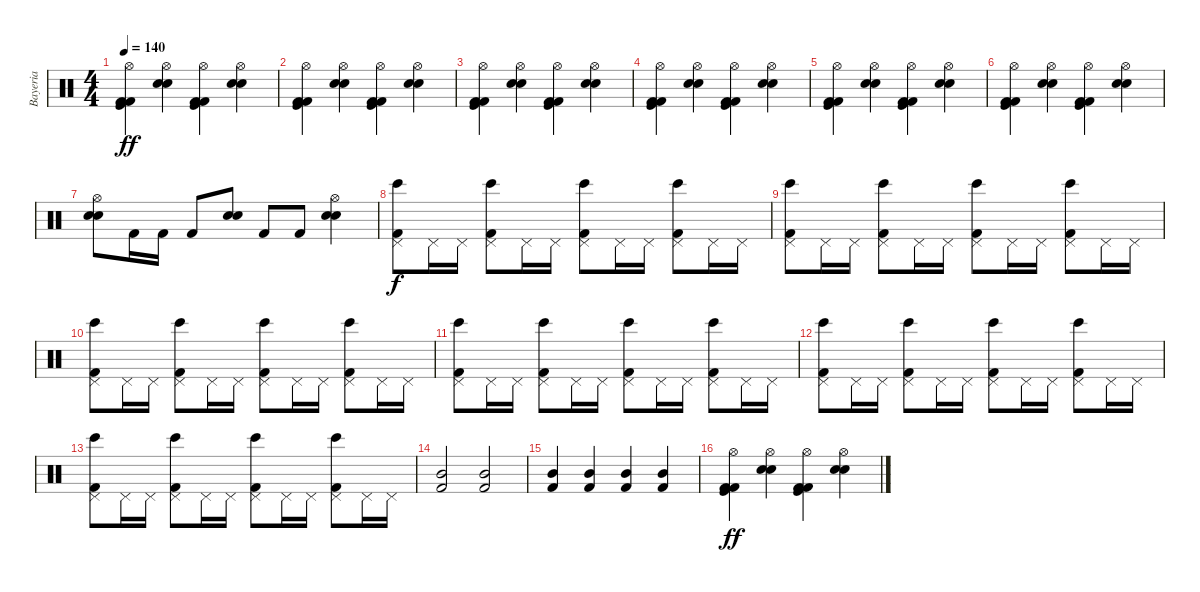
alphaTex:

\track ("Bayeria" "Bayeria") {instrument percussion}
\staff {score}
\articulation defaults
\ts (4 4)
\tempo 140
\clef neutral
\ks c
("Kick (hit) 2" "Kick (hit)" "Kick (hit) 2" "Hi-Hat (open)").4{dy ff} ("Electric Snare (hit)" "Snare (hit) 2" "Hi-Hat (open)").4 ("Kick (hit) 2" "Kick (hit)" "Kick (hit) 2" "Hi-Hat (open)").4 ("Electric Snare (hit)" "Snare (hit) 2" "Hi-Hat (open)").4 |
("Kick (hit) 2" "Kick (hit)" "Kick (hit) 2" "Hi-Hat (open)").4 ("Electric Snare (hit)" "Snare (hit) 2" "Hi-Hat (open)").4 ("Kick (hit) 2" "Kick (hit)" "Kick (hit) 2" "Hi-Hat (open)").4 ("Electric Snare (hit)" "Snare (hit) 2" "Hi-Hat (open)").4 |
("Kick (hit) 2" "Kick (hit)" "Kick (hit) 2" "Hi-Hat (open)").4 ("Electric Snare (hit)" "Snare (hit) 2" "Hi-Hat (open)").4 ("Kick (hit) 2" "Kick (hit)" "Kick (hit) 2" "Hi-Hat (open)").4 ("Electric Snare (hit)" "Snare (hit) 2" "Hi-Hat (open)").4 |
("Kick (hit) 2" "Kick (hit)" "Kick (hit) 2" "Hi-Hat (open)").4 ("Electric Snare (hit)" "Snare (hit) 2" "Hi-Hat (open)").4 ("Kick (hit) 2" "Kick (hit)" "Kick (hit) 2" "Hi-Hat (open)").4 ("Electric Snare (hit)" "Snare (hit) 2" "Hi-Hat (open)").4 |
("Kick (hit) 2" "Kick (hit)" "Kick (hit) 2" "Hi-Hat (open)").4 ("Electric Snare (hit)" "Snare (hit) 2" "Hi-Hat (open)").4 ("Kick (hit) 2" "Kick (hit)" "Kick (hit) 2" "Hi-Hat (open)").4 ("Electric Snare (hit)" "Snare (hit) 2" "Hi-Hat (open)").4 |
("Kick (hit) 2" "Kick (hit)" "Kick (hit) 2" "Hi-Hat (open)").4 ("Electric Snare (hit)" "Snare (hit) 2" "Hi-Hat (open)").4 ("Kick (hit) 2" "Kick (hit)" "Kick (hit) 2" "Hi-Hat (open)").4 ("Electric Snare (hit)" "Snare (hit) 2" "Hi-Hat (open)").4 |
("Electric Snare (hit)" "Snare (hit) 2" "Hi-Hat (open)").8 "Kick (hit) 2".16 "Kick (hit) 2".16 "Kick (hit) 2".8 ("Electric Snare (hit)" "Snare (hit) 2").8 "Kick (hit) 2".8 "Kick (hit) 2".8 ("Electric Snare (hit)" "Snare (hit) 2" "Hi-Hat (open)").4 |
("Pedal Hi-Hat (hit)" "Kick (hit) 2" "Bongo High (hit)").8{dy f} "Pedal Hi-Hat (hit)".16 "Pedal Hi-Hat (hit)".16 ("Pedal Hi-Hat (hit)" "Kick (hit) 2" "Bongo High (hit)").8 "Pedal Hi-Hat (hit)".16 "Pedal Hi-Hat (hit)".16 ("Pedal Hi-Hat (hit)" "Kick (hit) 2" "Bongo High (hit)").8 "Pedal Hi-Hat (hit)".16 "Pedal Hi-Hat (hit)".16 ("Pedal Hi-Hat (hit)" "Kick (hit) 2" "Bongo High (hit)").8 "Pedal Hi-Hat (hit)".16 "Pedal Hi-Hat (hit)".16 |
("Pedal Hi-Hat (hit)" "Kick (hit) 2" "Bongo High (hit)").8 "Pedal Hi-Hat (hit)".16 "Pedal Hi-Hat (hit)".16 ("Pedal Hi-Hat (hit)" "Kick (hit) 2" "Bongo High (hit)").8 "Pedal Hi-Hat (hit)".16 "Pedal Hi-Hat (hit)".16 ("Pedal Hi-Hat (hit)" "Kick (hit) 2" "Bongo High (hit)").8 "Pedal Hi-Hat (hit)".16 "Pedal Hi-Hat (hit)".16 ("Pedal Hi-Hat (hit)" "Kick (hit) 2" "Bongo High (hit)").8 "Pedal Hi-Hat (hit)".16 "Pedal Hi-Hat (hit)".16 |
("Pedal Hi-Hat (hit)" "Kick (hit) 2" "Bongo High (hit)").8 "Pedal Hi-Hat (hit)".16 "Pedal Hi-Hat (hit)".16 ("Pedal Hi-Hat (hit)" "Kick (hit) 2" "Bongo High (hit)").8 "Pedal Hi-Hat (hit)".16 "Pedal Hi-Hat (hit)".16 ("Pedal Hi-Hat (hit)" "Kick (hit) 2" "Bongo High (hit)").8 "Pedal Hi-Hat (hit)".16 "Pedal Hi-Hat (hit)".16 ("Pedal Hi-Hat (hit)" "Kick (hit) 2" "Bongo High (hit)").8 "Pedal Hi-Hat (hit)".16 "Pedal Hi-Hat (hit)".16 |
("Pedal Hi-Hat (hit)" "Kick (hit) 2" "Bongo High (hit)").8 "Pedal Hi-Hat (hit)".16 "Pedal Hi-Hat (hit)".16 ("Pedal Hi-Hat (hit)" "Kick (hit) 2" "Bongo High (hit)").8 "Pedal Hi-Hat (hit)".16 "Pedal Hi-Hat (hit)".16 ("Pedal Hi-Hat (hit)" "Kick (hit) 2" "Bongo High (hit)").8 "Pedal Hi-Hat (hit)".16 "Pedal Hi-Hat (hit)".16 ("Pedal Hi-Hat (hit)" "Kick (hit) 2" "Bongo High (hit)").8 "Pedal Hi-Hat (hit)".16 "Pedal Hi-Hat (hit)".16 |
("Pedal Hi-Hat (hit)" "Kick (hit) 2" "Bongo High (hit)").8 "Pedal Hi-Hat (hit)".16 "Pedal Hi-Hat (hit)".16 ("Pedal Hi-Hat (hit)" "Kick (hit) 2" "Bongo High (hit)").8 "Pedal Hi-Hat (hit)".16 "Pedal Hi-Hat (hit)".16 ("Pedal Hi-Hat (hit)" "Kick (hit) 2" "Bongo High (hit)").8 "Pedal Hi-Hat (hit)".16 "Pedal Hi-Hat (hit)".16 ("Pedal Hi-Hat (hit)" "Kick (hit) 2" "Bongo High (hit)").8 "Pedal Hi-Hat (hit)".16 "Pedal Hi-Hat (hit)".16 |
("Pedal Hi-Hat (hit)" "Kick (hit) 2" "Bongo High (hit)").8 "Pedal Hi-Hat (hit)".16 "Pedal Hi-Hat (hit)".16 ("Pedal Hi-Hat (hit)" "Kick (hit) 2" "Bongo High (hit)").8 "Pedal Hi-Hat (hit)".16 "Pedal Hi-Hat (hit)".16 ("Pedal Hi-Hat (hit)" "Kick (hit) 2" "Bongo High (hit)").8 "Pedal Hi-Hat (hit)".16 "Pedal Hi-Hat (hit)".16 ("Pedal Hi-Hat (hit)" "Kick (hit) 2" "Bongo High (hit)").8 "Pedal Hi-Hat (hit)".16 "Pedal Hi-Hat (hit)".16 |
("Kick (hit) 2" "Mid Tom (hit)").2 ("Mid Tom (hit)" "Kick (hit) 2").2 |
("Kick (hit) 2" "Mid Tom (hit)").4 ("Kick (hit) 2" "Mid Tom (hit)").4 ("Kick (hit) 2" "Mid Tom (hit)").4 ("Kick (hit) 2" "Mid Tom (hit)").4 |
("Kick (hit) 2" "Kick (hit)" "Kick (hit) 2" "Hi-Hat (open)").4{dy ff} ("Electric Snare (hit)" "Snare (hit) 2" "Hi-Hat (open)").4 ("Kick (hit) 2" "Kick (hit)" "Kick (hit) 2" "Hi-Hat (open)").4 ("Electric Snare (hit)" "Snare (hit) 2" "Hi-Hat (open)").4
